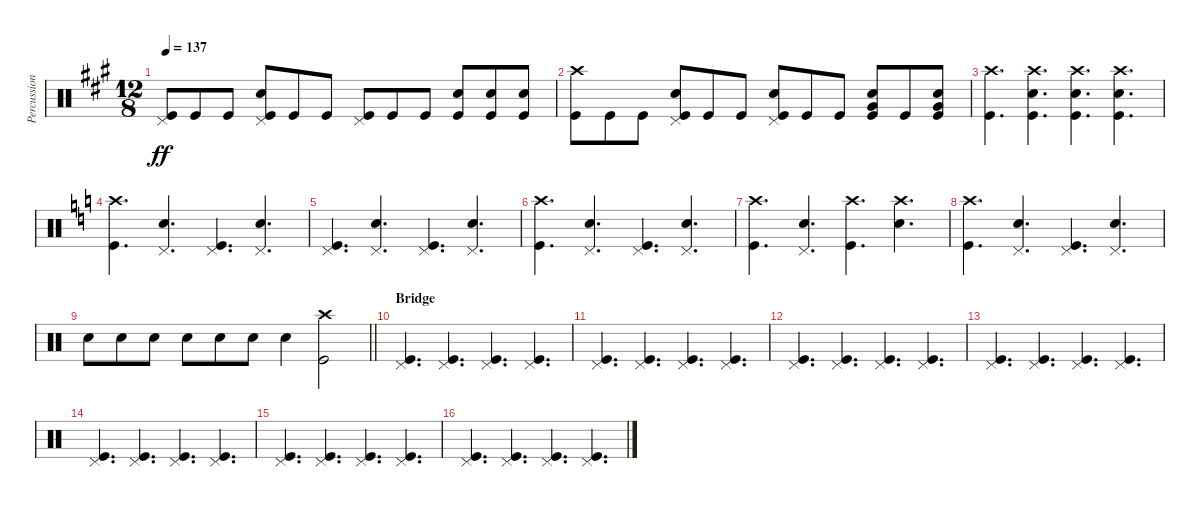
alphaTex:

\track ("Percussion" "Percussion") {instrument percussion bank 255}
\staff {score}
\articulation defaults
\ts (12 8)
\tempo 137
\clef neutral
\ks a
("Kick (hit)" "Pedal Hi-Hat (hit)").8{dy ff} "Kick (hit)".8 "Kick (hit)".8 ("Kick (hit)" "Electric Snare (hit)" "Pedal Hi-Hat (hit)").8{beam merge} "Kick (hit)".8 "Kick (hit)".8 ("Kick (hit)" "Pedal Hi-Hat (hit)").8 "Kick (hit)".8 "Kick (hit)".8 ("Kick (hit)" "Electric Snare (hit)").8 ("Kick (hit)" "Electric Snare (hit)").8 ("Kick (hit)" "Electric Snare (hit)").8 |
("Kick (hit)" "Crash high (hit)").8 "Kick (hit)".8 "Kick (hit)".8 ("Kick (hit)" "Electric Snare (hit)" "Pedal Hi-Hat (hit)").8{beam merge} "Kick (hit)".8 "Kick (hit)".8 ("Kick (hit)" "Pedal Hi-Hat (hit)" "Electric Snare (hit)").8 "Kick (hit)".8 "Kick (hit)".8 ("Kick (hit)" "Electric Snare (hit)" "Very Low Tom (hit)").8 "Kick (hit)".8 ("Kick (hit)" "Electric Snare (hit)" "Very Low Tom (hit)").8 |
("Kick (hit)" "Crash high (hit)").4{d beam merge} ("Kick (hit)" "Electric Snare (hit)" "Crash high (hit)").4{d beam merge} ("Kick (hit)" "Electric Snare (hit)" "Crash high (hit)").4{d beam merge} ("Kick (hit)" "Electric Snare (hit)" "Crash high (hit)").4{d} |
\ks c
("Kick (hit)" "Crash high (hit)").4{d} ("Pedal Hi-Hat (hit)" "Electric Snare (hit)").4{d} ("Pedal Hi-Hat (hit)" "Kick (hit)").4{d} ("Pedal Hi-Hat (hit)" "Electric Snare (hit)").4{d} |
("Kick (hit)" "Pedal Hi-Hat (hit)").4{d} ("Pedal Hi-Hat (hit)" "Electric Snare (hit)").4{d} ("Pedal Hi-Hat (hit)" "Kick (hit)").4{d} ("Pedal Hi-Hat (hit)" "Electric Snare (hit)").4{d} |
("Kick (hit)" "Crash high (hit)").4{d} ("Pedal Hi-Hat (hit)" "Electric Snare (hit)").4{d} ("Pedal Hi-Hat (hit)" "Kick (hit)").4{d} ("Pedal Hi-Hat (hit)" "Electric Snare (hit)").4{d} |
("Kick (hit)" "Crash high (hit)").4{d} ("Pedal Hi-Hat (hit)" "Electric Snare (hit)").4{d} ("Crash high (hit)" "Kick (hit)").4{d} ("Crash high (hit)" "Electric Snare (hit)").4{d} |
("Kick (hit)" "Crash high (hit)").4{d} ("Pedal Hi-Hat (hit)" "Electric Snare (hit)").4{d} ("Pedal Hi-Hat (hit)" "Kick (hit)").4{d} ("Pedal Hi-Hat (hit)" "Electric Snare (hit)").4{d} |
\barLineRight lightlight "Electric Snare (hit)".8 "Electric Snare (hit)".8 "Electric Snare (hit)".8 "Electric Snare (hit)".8{beam merge} "Electric Snare (hit)".8 "Electric Snare (hit)".8{beam merge} "Electric Snare (hit)".4
("Crash high (hit)" "Kick (hit)").2 |
\section ("" "Bridge")
("Kick (hit)" "Pedal Hi-Hat (hit)").4{d} ("Pedal Hi-Hat (hit)" "Kick (hit)").4{d} ("Pedal Hi-Hat (hit)" "Kick (hit)").4{d} ("Pedal Hi-Hat (hit)" "Kick (hit)").4{d} |
("Kick (hit)" "Pedal Hi-Hat (hit)").4{d} ("Pedal Hi-Hat (hit)" "Kick (hit)").4{d} ("Pedal Hi-Hat (hit)" "Kick (hit)").4{d} ("Pedal Hi-Hat (hit)" "Kick (hit)").4{d} |
("Kick (hit)" "Pedal Hi-Hat (hit)").4{d} ("Pedal Hi-Hat (hit)" "Kick (hit)").4{d} ("Pedal Hi-Hat (hit)" "Kick (hit)").4{d} ("Pedal Hi-Hat (hit)" "Kick (hit)").4{d} |
("Kick (hit)" "Pedal Hi-Hat (hit)").4{d} ("Pedal Hi-Hat (hit)" "Kick (hit)").4{d} ("Pedal Hi-Hat (hit)" "Kick (hit)").4{d} ("Pedal Hi-Hat (hit)" "Kick (hit)").4{d} |
("Kick (hit)" "Pedal Hi-Hat (hit)").4{d} ("Pedal Hi-Hat (hit)" "Kick (hit)").4{d} ("Pedal Hi-Hat (hit)" "Kick (hit)").4{d} ("Pedal Hi-Hat (hit)" "Kick (hit)").4{d} |
("Kick (hit)" "Pedal Hi-Hat (hit)").4{d} ("Pedal Hi-Hat (hit)" "Kick (hit)").4{d} ("Pedal Hi-Hat (hit)" "Kick (hit)").4{d} ("Pedal Hi-Hat (hit)" "Kick (hit)").4{d} |
("Kick (hit)" "Pedal Hi-Hat (hit)").4{d} ("Pedal Hi-Hat (hit)" "Kick (hit)").4{d} ("Pedal Hi-Hat (hit)" "Kick (hit)").4{d} ("Pedal Hi-Hat (hit)" "Kick (hit)").4{d}
